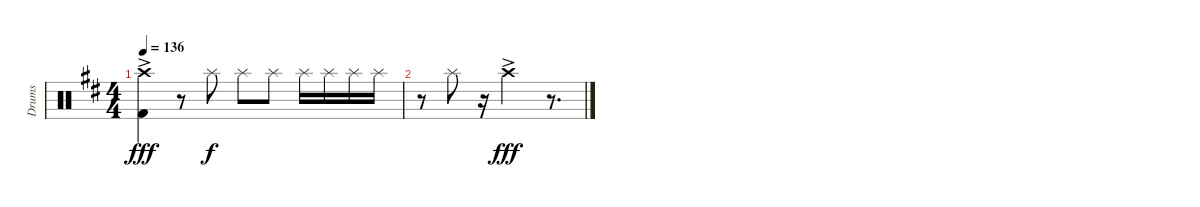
\track ("Drums" "Drums") {instrument percussion}
\staff {score}
\articulation defaults
\ts (4 4)
\tempo 136
\clef neutral
\ks d
("Crash high (hit)" "Kick (hit) 2"{ac}).4{dy fff} r.8 "Splash (hit)".8{dy f} "Splash (hit)".8 "Splash (hit)".8 "Splash (hit)".16 "Splash (hit)".16 "Splash (hit)".16 "Splash (hit)".16 |
r.8 "Splash (hit)".8 r.16 "Crash high (hit)"{ac}.2{dy fff} r.8{d}
